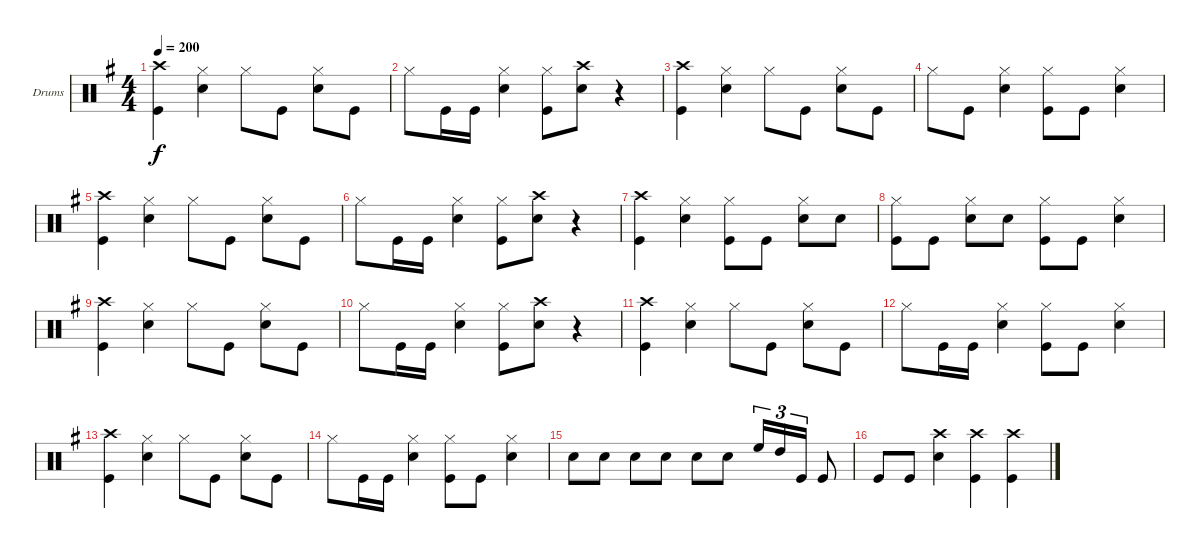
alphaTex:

\bracketExtendMode groupsimilarinstruments
\firstSystemTrackNameOrientation horizontal
\otherSystemsTrackNameOrientation horizontal
\track ("Drumkit" "Drums") {instrument percussion}
\staff {score}
\articulation defaults
\ts (4 4)
\tempo 200
\clef neutral
\ks g
("Kick (hit)" "Crash high (hit)").4{dy f} ("Hi-Hat (closed)" "Snare (hit) 2").4 "Hi-Hat (closed)".8 "Kick (hit)".8 ("Snare (hit) 2" "Hi-Hat (closed)").8 "Kick (hit)".8 |
"Hi-Hat (closed)".8 "Kick (hit)".16 "Kick (hit)".16 ("Snare (hit) 2" "Hi-Hat (closed)").4 ("Kick (hit)" "Hi-Hat (closed)").8 ("Snare (hit) 2" "Crash high (hit)").8 r.4 |
("Kick (hit)" "Crash high (hit)").4 ("Hi-Hat (closed)" "Snare (hit) 2").4 "Hi-Hat (closed)".8 "Kick (hit)".8 ("Snare (hit) 2" "Hi-Hat (closed)").8 "Kick (hit)".8 |
"Hi-Hat (closed)".8 "Kick (hit)".8 ("Snare (hit) 2" "Hi-Hat (closed)").4 ("Hi-Hat (closed)" "Kick (hit)").8 "Kick (hit)".8 ("Snare (hit) 2" "Hi-Hat (closed)").4 |
("Kick (hit)" "Crash high (hit)").4 ("Hi-Hat (closed)" "Snare (hit) 2").4 "Hi-Hat (closed)".8 "Kick (hit)".8 ("Snare (hit) 2" "Hi-Hat (closed)").8 "Kick (hit)".8 |
"Hi-Hat (closed)".8 "Kick (hit)".16 "Kick (hit)".16 ("Snare (hit) 2" "Hi-Hat (closed)").4 ("Kick (hit)" "Hi-Hat (closed)").8 ("Snare (hit) 2" "Crash high (hit)").8 r.4 |
("Kick (hit)" "Crash high (hit)").4 ("Hi-Hat (closed)" "Snare (hit) 2").4 ("Kick (hit)" "Hi-Hat (closed)").8 "Kick (hit)".8 ("Hi-Hat (closed)" "Snare (hit) 2").8 "Snare (hit) 2".8 |
("Kick (hit)" "Hi-Hat (closed)").8 "Kick (hit)".8 ("Hi-Hat (closed)" "Snare (hit) 2").8 "Snare (hit) 2".8 ("Kick (hit)" "Hi-Hat (closed)").8 "Kick (hit)".8 ("Snare (hit) 2" "Hi-Hat (closed)").4 |
("Kick (hit)" "Crash high (hit)").4 ("Hi-Hat (closed)" "Snare (hit) 2").4 "Hi-Hat (closed)".8 "Kick (hit)".8 ("Snare (hit) 2" "Hi-Hat (closed)").8 "Kick (hit)".8 |
"Hi-Hat (closed)".8 "Kick (hit)".16 "Kick (hit)".16 ("Snare (hit) 2" "Hi-Hat (closed)").4 ("Kick (hit)" "Hi-Hat (closed)").8 ("Snare (hit) 2" "Crash high (hit)").8 r.4 |
("Kick (hit)" "Crash high (hit)").4 ("Hi-Hat (closed)" "Snare (hit) 2").4 "Hi-Hat (closed)".8 "Kick (hit)".8 ("Snare (hit) 2" "Hi-Hat (closed)").8 "Kick (hit)".8 |
"Hi-Hat (closed)".8 "Kick (hit)".16 "Kick (hit)".16 ("Snare (hit) 2" "Hi-Hat (closed)").4 ("Hi-Hat (closed)" "Kick (hit)").8 "Kick (hit)".8 ("Snare (hit) 2" "Hi-Hat (closed)").4 |
("Kick (hit)" "Crash high (hit)").4 ("Hi-Hat (closed)" "Snare (hit) 2").4 "Hi-Hat (closed)".8 "Kick (hit)".8 ("Snare (hit) 2" "Hi-Hat (closed)").8 "Kick (hit)".8 |
"Hi-Hat (closed)".8 "Kick (hit)".16 "Kick (hit)".16 ("Snare (hit) 2" "Hi-Hat (closed)").4 ("Hi-Hat (closed)" "Kick (hit)").8 "Kick (hit)".8 ("Snare (hit) 2" "Hi-Hat (closed)").4 |
"Snare (hit) 2".8 "Snare (hit) 2".8 "Snare (hit) 2".8 "Snare (hit) 2".8 "Snare (hit) 2".8 "Snare (hit) 2".8 "High Floor Tom (hit)".16{tu (3 2)} "High Tom (hit)".16{tu (3 2)} "Kick (hit)".16{tu (3 2)} "Kick (hit)".8 |
"Kick (hit)".8 "Kick (hit)".8 ("Crash high (hit)" "Snare (hit) 2").4 ("Crash high (hit)" "Kick (hit)").4 ("Crash high (hit)" "Kick (hit)").4
